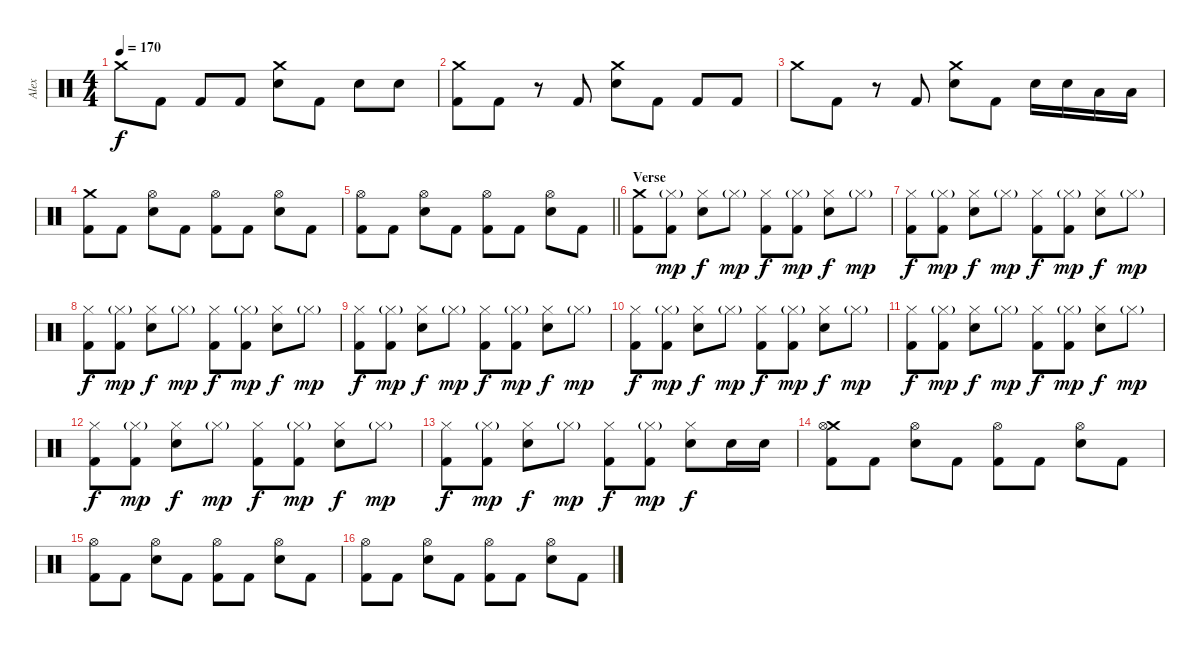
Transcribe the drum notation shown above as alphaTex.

\track ("Alex" "Alex") {instrument percussion}
\staff {score}
\articulation defaults
\ts (4 4)
\tempo 170
\clef neutral
\ks c "Crash medium (hit)".8{dy f} "Kick (hit) 2".8 "Kick (hit) 2".8 "Kick (hit) 2".8
("Crash medium (hit)" "Electric Snare (hit)").8 "Kick (hit) 2".8 "Electric Snare (hit)".8 "Electric Snare (hit)".8 |
("Crash medium (hit)" "Kick (hit) 2").8 "Kick (hit) 2".8 r.8 "Kick (hit) 2".8 ("Crash medium (hit)" "Electric Snare (hit)").8 "Kick (hit) 2".8 "Kick (hit) 2".8 "Kick (hit) 2".8 |
"Crash medium (hit)".8 "Kick (hit) 2".8 r.8 "Kick (hit) 2".8 ("Crash medium (hit)" "Electric Snare (hit)").8 "Kick (hit) 2".8 "Electric Snare (hit)".16 "Electric Snare (hit)".16 "Low Tom (hit)".16 "Low Tom (hit)".16 |
("Crash medium (hit)" "Kick (hit) 2").8 "Kick (hit) 2".8 ("Hi-Hat (open)" "Electric Snare (hit)").8 "Kick (hit) 2".8 ("Hi-Hat (open)" "Kick (hit) 2").8 "Kick (hit) 2".8 ("Hi-Hat (open)" "Electric Snare (hit)").8 "Kick (hit) 2".8 |
\barLineRight lightlight
("Hi-Hat (open)" "Kick (hit) 2").8 "Kick (hit) 2".8 ("Hi-Hat (open)" "Electric Snare (hit)").8 "Kick (hit) 2".8 ("Hi-Hat (open)" "Kick (hit) 2").8 "Kick (hit) 2".8 ("Hi-Hat (open)" "Electric Snare (hit)").8 "Kick (hit) 2".8 |
\section ("" "Verse")
("Crash medium (hit)" "Kick (hit) 2").8 ("Hi-Hat (closed)"{g} "Kick (hit) 2").8{dy mp} ("Hi-Hat (closed)" "Electric Snare (hit)").8{dy f} "Hi-Hat (closed)"{g}.8{dy mp} ("Hi-Hat (closed)" "Kick (hit) 2").8{dy f} ("Hi-Hat (closed)"{g} "Kick (hit) 2").8{dy mp} ("Hi-Hat (closed)" "Electric Snare (hit)").8{dy f} "Hi-Hat (closed)"{g}.8{dy mp} |
("Hi-Hat (closed)" "Kick (hit) 2").8{dy f} ("Hi-Hat (closed)"{g} "Kick (hit) 2").8{dy mp} ("Hi-Hat (closed)" "Electric Snare (hit)").8{dy f} "Hi-Hat (closed)"{g}.8{dy mp} ("Hi-Hat (closed)" "Kick (hit) 2").8{dy f} ("Hi-Hat (closed)"{g} "Kick (hit) 2").8{dy mp} ("Hi-Hat (closed)" "Electric Snare (hit)").8{dy f} "Hi-Hat (closed)"{g}.8{dy mp} |
("Hi-Hat (closed)" "Kick (hit) 2").8{dy f} ("Hi-Hat (closed)"{g} "Kick (hit) 2").8{dy mp} ("Hi-Hat (closed)" "Electric Snare (hit)").8{dy f} "Hi-Hat (closed)"{g}.8{dy mp} ("Hi-Hat (closed)" "Kick (hit) 2").8{dy f} ("Hi-Hat (closed)"{g} "Kick (hit) 2").8{dy mp} ("Hi-Hat (closed)" "Electric Snare (hit)").8{dy f} "Hi-Hat (closed)"{g}.8{dy mp} |
("Hi-Hat (closed)" "Kick (hit) 2").8{dy f} ("Hi-Hat (closed)"{g} "Kick (hit) 2").8{dy mp} ("Hi-Hat (closed)" "Electric Snare (hit)").8{dy f} "Hi-Hat (closed)"{g}.8{dy mp} ("Hi-Hat (closed)" "Kick (hit) 2").8{dy f} ("Hi-Hat (closed)"{g} "Kick (hit) 2").8{dy mp} ("Hi-Hat (closed)" "Electric Snare (hit)").8{dy f} "Hi-Hat (closed)"{g}.8{dy mp} |
("Hi-Hat (closed)" "Kick (hit) 2").8{dy f} ("Hi-Hat (closed)"{g} "Kick (hit) 2").8{dy mp} ("Hi-Hat (closed)" "Electric Snare (hit)").8{dy f} "Hi-Hat (closed)"{g}.8{dy mp} ("Hi-Hat (closed)" "Kick (hit) 2").8{dy f} ("Hi-Hat (closed)"{g} "Kick (hit) 2").8{dy mp} ("Hi-Hat (closed)" "Electric Snare (hit)").8{dy f} "Hi-Hat (closed)"{g}.8{dy mp} |
("Hi-Hat (closed)" "Kick (hit) 2").8{dy f} ("Hi-Hat (closed)"{g} "Kick (hit) 2").8{dy mp} ("Hi-Hat (closed)" "Electric Snare (hit)").8{dy f} "Hi-Hat (closed)"{g}.8{dy mp} ("Hi-Hat (closed)" "Kick (hit) 2").8{dy f} ("Hi-Hat (closed)"{g} "Kick (hit) 2").8{dy mp} ("Hi-Hat (closed)" "Electric Snare (hit)").8{dy f} "Hi-Hat (closed)"{g}.8{dy mp} |
("Hi-Hat (closed)" "Kick (hit) 2").8{dy f} ("Hi-Hat (closed)"{g} "Kick (hit) 2").8{dy mp} ("Hi-Hat (closed)" "Electric Snare (hit)").8{dy f} "Hi-Hat (closed)"{g}.8{dy mp} ("Hi-Hat (closed)" "Kick (hit) 2").8{dy f} ("Hi-Hat (closed)"{g} "Kick (hit) 2").8{dy mp} ("Hi-Hat (closed)" "Electric Snare (hit)").8{dy f} "Hi-Hat (closed)"{g}.8{dy mp} |
("Hi-Hat (closed)" "Kick (hit) 2").8{dy f} ("Hi-Hat (closed)"{g} "Kick (hit) 2").8{dy mp} ("Hi-Hat (closed)" "Electric Snare (hit)").8{dy f} "Hi-Hat (closed)"{g}.8{dy mp} ("Hi-Hat (closed)" "Kick (hit) 2").8{dy f} ("Hi-Hat (closed)"{g} "Kick (hit) 2").8{dy mp} ("Hi-Hat (closed)" "Electric Snare (hit)").8{dy f} "Electric Snare (hit)".16 "Electric Snare (hit)".16 |
("Crash medium (hit)" "Hi-Hat (open)" "Kick (hit) 2").8 "Kick (hit) 2".8 ("Hi-Hat (open)" "Electric Snare (hit)").8 "Kick (hit) 2".8 ("Hi-Hat (open)" "Kick (hit) 2").8 "Kick (hit) 2".8 ("Hi-Hat (open)" "Electric Snare (hit)").8 "Kick (hit) 2".8 |
("Hi-Hat (open)" "Kick (hit) 2").8 "Kick (hit) 2".8 ("Hi-Hat (open)" "Electric Snare (hit)").8 "Kick (hit) 2".8 ("Hi-Hat (open)" "Kick (hit) 2").8 "Kick (hit) 2".8 ("Hi-Hat (open)" "Electric Snare (hit)").8 "Kick (hit) 2".8 |
("Hi-Hat (open)" "Kick (hit) 2").8 "Kick (hit) 2".8 ("Hi-Hat (open)" "Electric Snare (hit)").8 "Kick (hit) 2".8 ("Hi-Hat (open)" "Kick (hit) 2").8 "Kick (hit) 2".8 ("Hi-Hat (open)" "Electric Snare (hit)").8 "Kick (hit) 2".8
